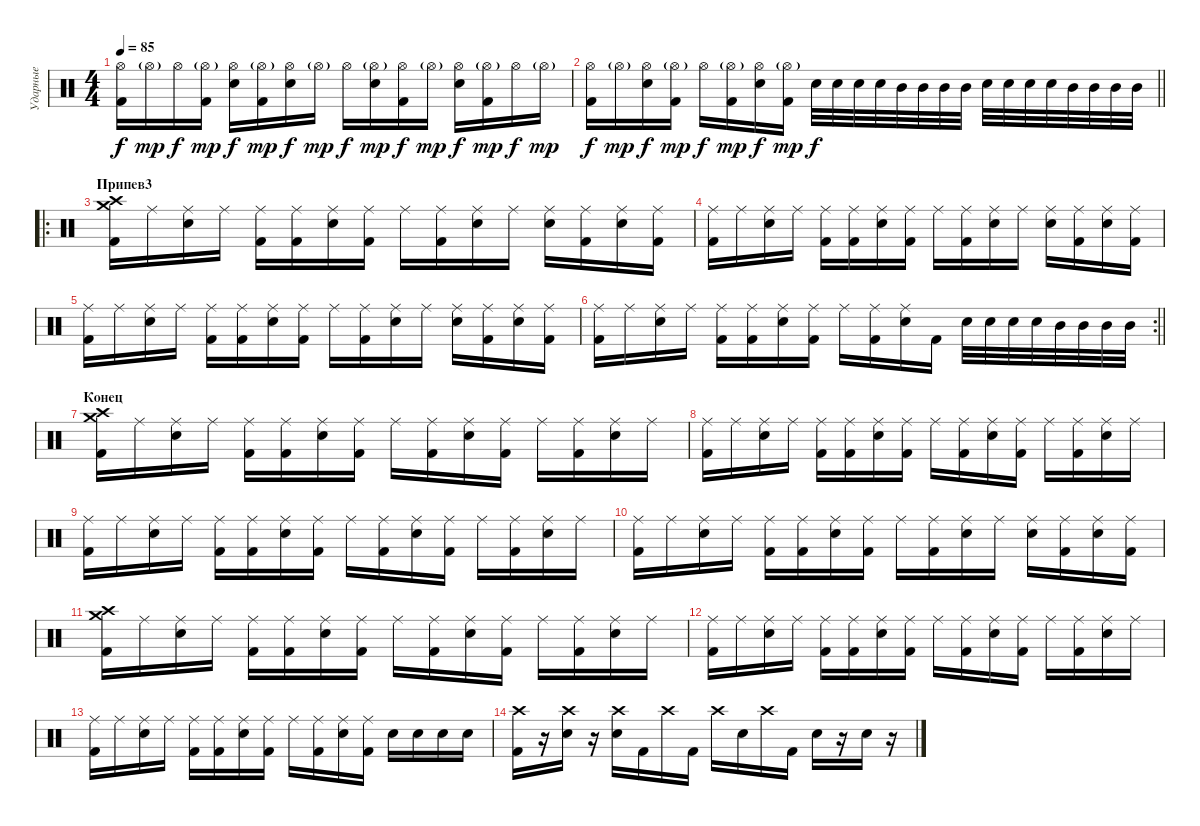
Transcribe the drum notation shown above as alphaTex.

\track ("Ударные" "Ударные") {instrument percussion}
\staff {score}
\articulation defaults
\ts (4 4)
\tempo 85
\clef neutral
\ks c
("Hi-Hat (open)" "Kick (hit) 2").16{dy f} "Hi-Hat (open)"{g}.16{dy mp} "Hi-Hat (open)".16{dy f} ("Hi-Hat (open)"{g} "Kick (hit) 2").16{dy mp} ("Hi-Hat (open)" "Electric Snare (hit)").16{dy f} ("Hi-Hat (open)"{g} "Kick (hit) 2").16{dy mp} ("Hi-Hat (open)" "Electric Snare (hit)").16{dy f} "Hi-Hat (open)"{g}.16{dy mp} "Hi-Hat (open)".16{dy f} ("Hi-Hat (open)"{g} "Electric Snare (hit)").16{dy mp} ("Hi-Hat (open)" "Kick (hit) 2").16{dy f} "Hi-Hat (open)"{g}.16{dy mp} ("Hi-Hat (open)" "Electric Snare (hit)").16{dy f} ("Hi-Hat (open)"{g} "Kick (hit) 2").16{dy mp} "Hi-Hat (open)".16{dy f} "Hi-Hat (open)"{g}.16{dy mp} |
\barLineRight lightlight
("Hi-Hat (open)" "Kick (hit) 2").16{dy f} "Hi-Hat (open)"{g}.16{dy mp} ("Hi-Hat (open)" "Electric Snare (hit)").16{dy f} ("Hi-Hat (open)"{g} "Kick (hit) 2").16{dy mp} "Hi-Hat (open)".16{dy f} ("Hi-Hat (open)"{g} "Kick (hit) 2").16{dy mp} ("Hi-Hat (open)" "Electric Snare (hit)").16{dy f} ("Hi-Hat (open)"{g} "Kick (hit) 2").16{dy mp} "Electric Snare (hit)".32{dy f} "Electric Snare (hit)".32 "Electric Snare (hit)".32 "Electric Snare (hit)".32 "Mid Tom (hit)".32 "Mid Tom (hit)".32 "Mid Tom (hit)".32 "Mid Tom (hit)".32 "Electric Snare (hit)".32 "Electric Snare (hit)".32 "Electric Snare (hit)".32 "Electric Snare (hit)".32 "Mid Tom (hit)".32 "Mid Tom (hit)".32 "Mid Tom (hit)".32 "Mid Tom (hit)".32 |
\ro
\section ("" "Припев3")
("Crash high (hit)" "Crash medium (hit)" "Kick (hit) 2").16 "Ride (middle)".16 ("Ride (middle)" "Electric Snare (hit)").16 "Ride (middle)".16 ("Ride (middle)" "Kick (hit) 2").16 ("Ride (middle)" "Kick (hit) 2").16 ("Ride (middle)" "Electric Snare (hit)").16 ("Ride (middle)" "Kick (hit) 2").16 "Ride (middle)".16 ("Ride (middle)" "Kick (hit) 2").16 ("Ride (middle)" "Electric Snare (hit)").16 "Ride (middle)".16 ("Ride (middle)" "Electric Snare (hit)").16 ("Ride (middle)" "Kick (hit) 2").16 ("Ride (middle)" "Electric Snare (hit)").16 ("Ride (middle)" "Kick (hit) 2").16 |
("Ride (middle)" "Kick (hit) 2").16 "Ride (middle)".16 ("Ride (middle)" "Electric Snare (hit)").16 "Ride (middle)".16 ("Ride (middle)" "Kick (hit) 2").16 ("Ride (middle)" "Kick (hit) 2").16 ("Ride (middle)" "Electric Snare (hit)").16 ("Ride (middle)" "Kick (hit) 2").16 "Ride (middle)".16 ("Ride (middle)" "Kick (hit) 2").16 ("Ride (middle)" "Electric Snare (hit)").16 "Ride (middle)".16 ("Ride (middle)" "Electric Snare (hit)").16 ("Ride (middle)" "Kick (hit) 2").16 ("Ride (middle)" "Electric Snare (hit)").16 ("Ride (middle)" "Kick (hit) 2").16 |
("Ride (middle)" "Kick (hit) 2").16 "Ride (middle)".16 ("Ride (middle)" "Electric Snare (hit)").16 "Ride (middle)".16 ("Ride (middle)" "Kick (hit) 2").16 ("Ride (middle)" "Kick (hit) 2").16 ("Ride (middle)" "Electric Snare (hit)").16 ("Ride (middle)" "Kick (hit) 2").16 "Ride (middle)".16 ("Ride (middle)" "Kick (hit) 2").16 ("Ride (middle)" "Electric Snare (hit)").16 "Ride (middle)".16 ("Ride (middle)" "Electric Snare (hit)").16 ("Ride (middle)" "Kick (hit) 2").16 ("Ride (middle)" "Electric Snare (hit)").16 ("Ride (middle)" "Kick (hit) 2").16 |
\rc 2
\barLineRight lightlight
("Ride (middle)" "Kick (hit) 2").16 "Ride (middle)".16 ("Ride (middle)" "Electric Snare (hit)").16 "Ride (middle)".16 ("Ride (middle)" "Kick (hit) 2").16 ("Ride (middle)" "Kick (hit) 2").16 ("Ride (middle)" "Electric Snare (hit)").16 ("Ride (middle)" "Kick (hit) 2").16 "Ride (middle)".16 ("Ride (middle)" "Kick (hit) 2").16 ("Ride (middle)" "Electric Snare (hit)").16 "Kick (hit) 2".16 "Electric Snare (hit)".32 "Electric Snare (hit)".32 "Electric Snare (hit)".32 "Electric Snare (hit)".32 "Mid Tom (hit)".32 "Mid Tom (hit)".32 "Mid Tom (hit)".32 "Mid Tom (hit)".32 |
\section ("" "Конец")
("Crash high (hit)" "Crash medium (hit)" "Kick (hit) 2").16 "Ride (middle)".16 ("Ride (middle)" "Electric Snare (hit)").16 "Ride (middle)".16 ("Ride (middle)" "Kick (hit) 2").16 ("Ride (middle)" "Kick (hit) 2").16 ("Ride (middle)" "Electric Snare (hit)").16 ("Ride (middle)" "Kick (hit) 2").16 "Ride (middle)".16 ("Ride (middle)" "Kick (hit) 2").16 ("Ride (middle)" "Electric Snare (hit)").16 ("Ride (middle)" "Kick (hit) 2").16 "Ride (middle)".16 ("Ride (middle)" "Kick (hit) 2").16 ("Ride (middle)" "Electric Snare (hit)").16 "Ride (middle)".16 |
("Ride (middle)" "Kick (hit) 2").16 "Ride (middle)".16 ("Ride (middle)" "Electric Snare (hit)").16 "Ride (middle)".16 ("Ride (middle)" "Kick (hit) 2").16 ("Ride (middle)" "Kick (hit) 2").16 ("Ride (middle)" "Electric Snare (hit)").16 ("Ride (middle)" "Kick (hit) 2").16 "Ride (middle)".16 ("Ride (middle)" "Kick (hit) 2").16 ("Ride (middle)" "Electric Snare (hit)").16 ("Ride (middle)" "Kick (hit) 2").16 "Ride (middle)".16 ("Ride (middle)" "Kick (hit) 2").16 ("Ride (middle)" "Electric Snare (hit)").16 "Ride (middle)".16 |
("Ride (middle)" "Kick (hit) 2").16 "Ride (middle)".16 ("Ride (middle)" "Electric Snare (hit)").16 "Ride (middle)".16 ("Ride (middle)" "Kick (hit) 2").16 ("Ride (middle)" "Kick (hit) 2").16 ("Ride (middle)" "Electric Snare (hit)").16 ("Ride (middle)" "Kick (hit) 2").16 "Ride (middle)".16 ("Ride (middle)" "Kick (hit) 2").16 ("Ride (middle)" "Electric Snare (hit)").16 ("Ride (middle)" "Kick (hit) 2").16 "Ride (middle)".16 ("Ride (middle)" "Kick (hit) 2").16 ("Ride (middle)" "Electric Snare (hit)").16 "Ride (middle)".16 |
("Ride (middle)" "Kick (hit) 2").16 "Ride (middle)".16 ("Ride (middle)" "Electric Snare (hit)").16 "Ride (middle)".16 ("Ride (middle)" "Kick (hit) 2").16 ("Ride (middle)" "Kick (hit) 2").16 ("Ride (middle)" "Electric Snare (hit)").16 ("Ride (middle)" "Kick (hit) 2").16 "Ride (middle)".16 ("Ride (middle)" "Kick (hit) 2").16 ("Ride (middle)" "Electric Snare (hit)").16 "Ride (middle)".16 ("Ride (middle)" "Electric Snare (hit)").16 ("Ride (middle)" "Kick (hit) 2").16 ("Ride (middle)" "Electric Snare (hit)").16 ("Ride (middle)" "Kick (hit) 2").16 |
("Crash high (hit)" "Crash medium (hit)" "Kick (hit) 2").16 "Ride (middle)".16 ("Ride (middle)" "Electric Snare (hit)").16 "Ride (middle)".16 ("Ride (middle)" "Kick (hit) 2").16 ("Ride (middle)" "Kick (hit) 2").16 ("Ride (middle)" "Electric Snare (hit)").16 ("Ride (middle)" "Kick (hit) 2").16 "Ride (middle)".16 ("Ride (middle)" "Kick (hit) 2").16 ("Ride (middle)" "Electric Snare (hit)").16 ("Ride (middle)" "Kick (hit) 2").16 "Ride (middle)".16 ("Ride (middle)" "Kick (hit) 2").16 ("Ride (middle)" "Electric Snare (hit)").16 "Ride (middle)".16 |
("Ride (middle)" "Kick (hit) 2").16 "Ride (middle)".16 ("Ride (middle)" "Electric Snare (hit)").16 "Ride (middle)".16 ("Ride (middle)" "Kick (hit) 2").16 ("Ride (middle)" "Kick (hit) 2").16 ("Ride (middle)" "Electric Snare (hit)").16 ("Ride (middle)" "Kick (hit) 2").16 "Ride (middle)".16 ("Ride (middle)" "Kick (hit) 2").16 ("Ride (middle)" "Electric Snare (hit)").16 ("Ride (middle)" "Kick (hit) 2").16 "Ride (middle)".16 ("Ride (middle)" "Kick (hit) 2").16 ("Ride (middle)" "Electric Snare (hit)").16 "Ride (middle)".16 |
("Ride (middle)" "Kick (hit) 2").16 "Ride (middle)".16 ("Ride (middle)" "Electric Snare (hit)").16 "Ride (middle)".16 ("Ride (middle)" "Kick (hit) 2").16 ("Ride (middle)" "Kick (hit) 2").16 ("Ride (middle)" "Electric Snare (hit)").16 ("Ride (middle)" "Kick (hit) 2").16 "Ride (middle)".16 ("Ride (middle)" "Kick (hit) 2").16 ("Ride (middle)" "Electric Snare (hit)").16 ("Ride (middle)" "Kick (hit) 2").16 "Electric Snare (hit)".16 "Electric Snare (hit)".16 "Electric Snare (hit)".16 "Electric Snare (hit)".16 |
("Crash high (hit)" "Kick (hit) 2").16 r.16 ("Crash high (hit)" "Electric Snare (hit)").16 r.16 ("Crash high (hit)" "Electric Snare (hit)").16 "Kick (hit) 2".16 "Crash high (hit)".16 "Kick (hit) 2".16 "Crash high (hit)".16 "Electric Snare (hit)".16 "Crash high (hit)".16 "Kick (hit) 2".16 "Electric Snare (hit)".16 r.16 "Electric Snare (hit)".16 r.16
